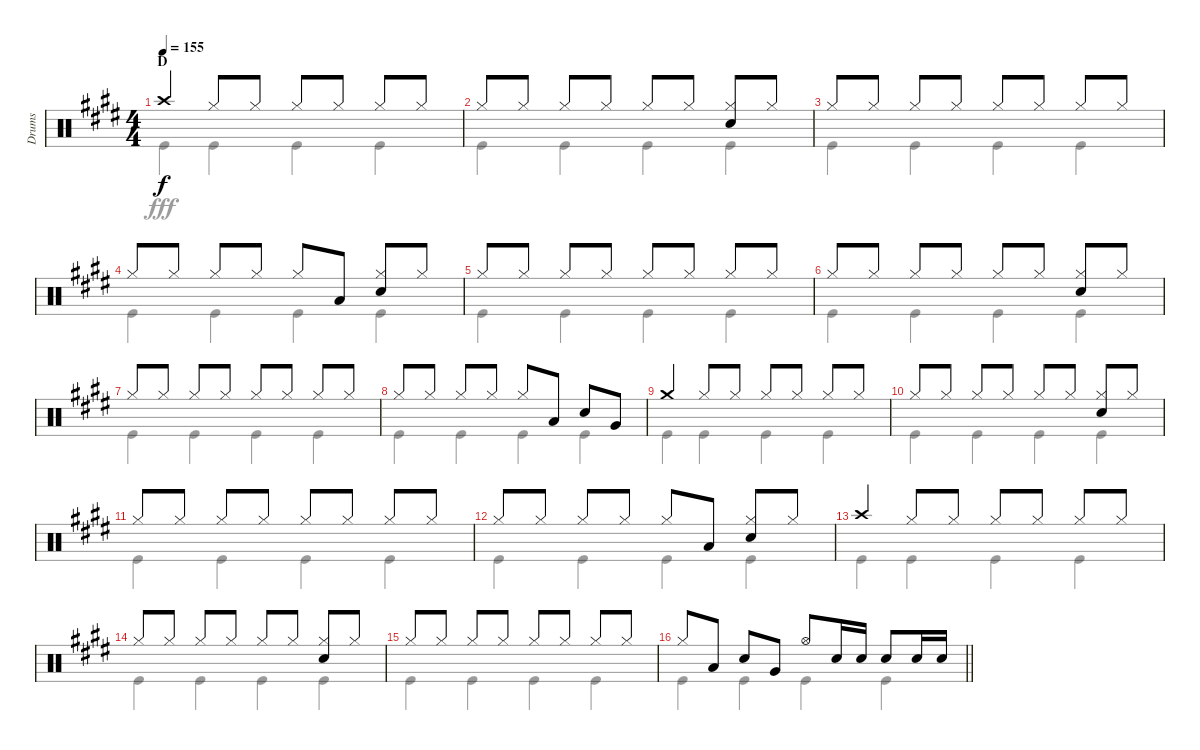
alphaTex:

\track ("Drums" "Drums") {instrument percussion}
\staff {score}
\articulation defaults
\voice
\ts (4 4)
\section ("" "D")
\tempo 155
\clef neutral
\ks e "Crash high (hit)".4{dy f} "Hi-Hat (closed)".8 "Hi-Hat (closed)".8 "Hi-Hat (closed)".8 "Hi-Hat (closed)".8 "Hi-Hat (closed)".8 "Hi-Hat (closed)".8
|
"Hi-Hat (closed)".8 "Hi-Hat (closed)".8 "Hi-Hat (closed)".8 "Hi-Hat (closed)".8 "Hi-Hat (closed)".8 "Hi-Hat (closed)".8 ("Hi-Hat (closed)" "Snare (hit) 2").8 "Hi-Hat (closed)".8 |
"Hi-Hat (closed)".8 "Hi-Hat (closed)".8 "Hi-Hat (closed)".8 "Hi-Hat (closed)".8 "Hi-Hat (closed)".8 "Hi-Hat (closed)".8 "Hi-Hat (closed)".8 "Hi-Hat (closed)".8 |
"Hi-Hat (closed)".8 "Hi-Hat (closed)".8 "Hi-Hat (closed)".8 "Hi-Hat (closed)".8 "Hi-Hat (closed)".8 "Low Tom (hit)".8 ("Hi-Hat (closed)" "Snare (hit) 2").8 "Hi-Hat (closed)".8 |
"Hi-Hat (closed)".8 "Hi-Hat (closed)".8 "Hi-Hat (closed)".8 "Hi-Hat (closed)".8 "Hi-Hat (closed)".8 "Hi-Hat (closed)".8 "Hi-Hat (closed)".8 "Hi-Hat (closed)".8 |
"Hi-Hat (closed)".8 "Hi-Hat (closed)".8 "Hi-Hat (closed)".8 "Hi-Hat (closed)".8 "Hi-Hat (closed)".8 "Hi-Hat (closed)".8 ("Hi-Hat (closed)" "Snare (hit) 2").8 "Hi-Hat (closed)".8 |
"Hi-Hat (closed)".8 "Hi-Hat (closed)".8 "Hi-Hat (closed)".8 "Hi-Hat (closed)".8 "Hi-Hat (closed)".8 "Hi-Hat (closed)".8 "Hi-Hat (closed)".8 "Hi-Hat (closed)".8 |
"Hi-Hat (closed)".8 "Hi-Hat (closed)".8 "Hi-Hat (closed)".8 "Hi-Hat (closed)".8 "Hi-Hat (closed)".8 "Low Tom (hit)".8 "Snare (hit) 2".8 "Very Low Tom (hit)".8 |
"Crash medium (hit)".4 "Hi-Hat (closed)".8 "Hi-Hat (closed)".8 "Hi-Hat (closed)".8 "Hi-Hat (closed)".8 "Hi-Hat (closed)".8 "Hi-Hat (closed)".8 |
"Hi-Hat (closed)".8 "Hi-Hat (closed)".8 "Hi-Hat (closed)".8 "Hi-Hat (closed)".8 "Hi-Hat (closed)".8 "Hi-Hat (closed)".8 ("Hi-Hat (closed)" "Snare (hit) 2").8 "Hi-Hat (closed)".8 |
"Hi-Hat (closed)".8 "Hi-Hat (closed)".8 "Hi-Hat (closed)".8 "Hi-Hat (closed)".8 "Hi-Hat (closed)".8 "Hi-Hat (closed)".8 "Hi-Hat (closed)".8 "Hi-Hat (closed)".8 |
"Hi-Hat (closed)".8 "Hi-Hat (closed)".8 "Hi-Hat (closed)".8 "Hi-Hat (closed)".8 "Hi-Hat (closed)".8 "Low Tom (hit)".8 ("Hi-Hat (closed)" "Snare (hit) 2").8 "Hi-Hat (closed)".8 |
"Crash high (hit)".4 "Hi-Hat (closed)".8 "Hi-Hat (closed)".8 "Hi-Hat (closed)".8 "Hi-Hat (closed)".8 "Hi-Hat (closed)".8 "Hi-Hat (closed)".8 |
"Hi-Hat (closed)".8 "Hi-Hat (closed)".8 "Hi-Hat (closed)".8 "Hi-Hat (closed)".8 "Hi-Hat (closed)".8 "Hi-Hat (closed)".8 ("Hi-Hat (closed)" "Snare (hit) 2").8 "Hi-Hat (closed)".8 |
"Hi-Hat (closed)".8 "Hi-Hat (closed)".8 "Hi-Hat (closed)".8 "Hi-Hat (closed)".8 "Hi-Hat (closed)".8 "Hi-Hat (closed)".8 "Hi-Hat (closed)".8 "Hi-Hat (closed)".8 |
\barLineRight lightlight "Hi-Hat (closed)".8 "Low Tom (hit)".8 "Snare (hit) 2".8 "Very Low Tom (hit)".8 "Hi-Hat (open)".8 "Snare (hit) 2".16 "Snare (hit) 2".16 "Snare (hit) 2".8 "Snare (hit) 2".16 "Snare (hit) 2".16
\voice
\clef neutral
\ottava regular
\simile none
\ks e "Kick (hit)".4{dy fff} "Kick (hit)".4 "Kick (hit)".4 "Kick (hit)".4
|
"Kick (hit)".4 "Kick (hit)".4 "Kick (hit)".4 "Kick (hit)".4 |
"Kick (hit)".4 "Kick (hit)".4 "Kick (hit)".4 "Kick (hit)".4 |
"Kick (hit)".4 "Kick (hit)".4 "Kick (hit)".4 "Kick (hit)".4 |
"Kick (hit)".4 "Kick (hit)".4 "Kick (hit)".4 "Kick (hit)".4 |
"Kick (hit)".4 "Kick (hit)".4 "Kick (hit)".4 "Kick (hit)".4 |
"Kick (hit)".4 "Kick (hit)".4 "Kick (hit)".4 "Kick (hit)".4 |
"Kick (hit)".4 "Kick (hit)".4 "Kick (hit)".4 "Kick (hit)".4 |
"Kick (hit)".4 "Kick (hit)".4 "Kick (hit)".4 "Kick (hit)".4 |
"Kick (hit)".4 "Kick (hit)".4 "Kick (hit)".4 "Kick (hit)".4 |
"Kick (hit)".4 "Kick (hit)".4 "Kick (hit)".4 "Kick (hit)".4 |
"Kick (hit)".4 "Kick (hit)".4 "Kick (hit)".4 "Kick (hit)".4 |
"Kick (hit)".4 "Kick (hit)".4 "Kick (hit)".4 "Kick (hit)".4 |
"Kick (hit)".4 "Kick (hit)".4 "Kick (hit)".4 "Kick (hit)".4 |
"Kick (hit)".4 "Kick (hit)".4 "Kick (hit)".4 "Kick (hit)".4 |
\barLineRight lightlight "Kick (hit)".4 "Kick (hit)".4 "Kick (hit)".4 "Kick (hit)".4
